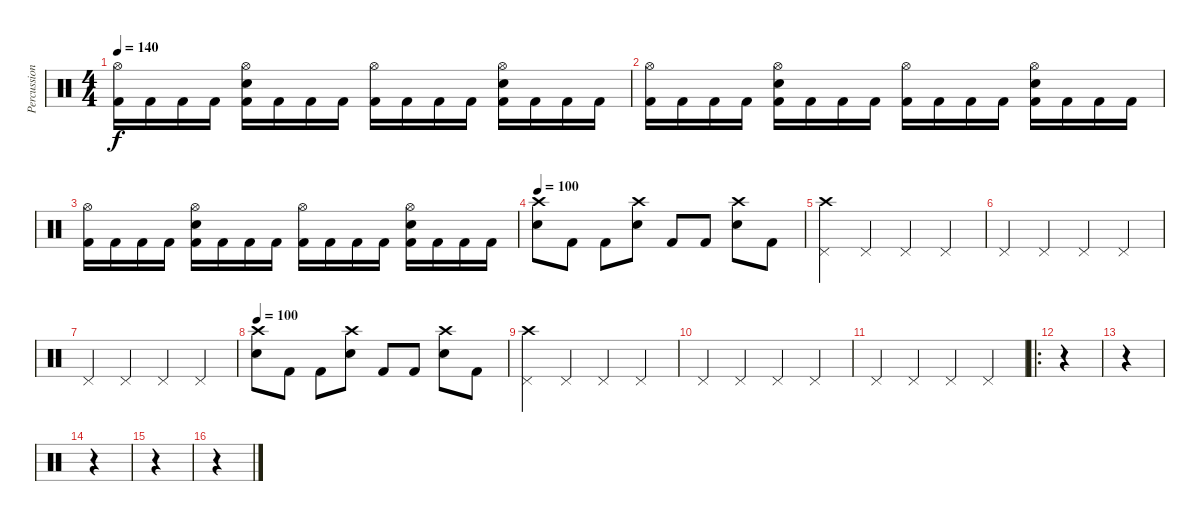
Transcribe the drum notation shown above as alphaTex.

\track ("Percussion" "Percussion") {instrument percussion}
\staff {score}
\articulation defaults
\ts (4 4)
\tempo 140
\clef neutral
\ks c
("Hi-Hat (open)" "Kick (hit) 2").16{dy f} "Kick (hit) 2".16 "Kick (hit) 2".16 "Kick (hit) 2".16 ("Hi-Hat (open)" "Electric Snare (hit)" "Kick (hit) 2").16 "Kick (hit) 2".16 "Kick (hit) 2".16 "Kick (hit) 2".16 ("Hi-Hat (open)" "Kick (hit) 2").16 "Kick (hit) 2".16 "Kick (hit) 2".16 "Kick (hit) 2".16 ("Hi-Hat (open)" "Electric Snare (hit)" "Kick (hit) 2").16 "Kick (hit) 2".16 "Kick (hit) 2".16 "Kick (hit) 2".16 |
("Hi-Hat (open)" "Kick (hit) 2").16 "Kick (hit) 2".16 "Kick (hit) 2".16 "Kick (hit) 2".16 ("Hi-Hat (open)" "Electric Snare (hit)" "Kick (hit) 2").16 "Kick (hit) 2".16 "Kick (hit) 2".16 "Kick (hit) 2".16 ("Hi-Hat (open)" "Kick (hit) 2").16 "Kick (hit) 2".16 "Kick (hit) 2".16 "Kick (hit) 2".16 ("Hi-Hat (open)" "Electric Snare (hit)" "Kick (hit) 2").16 "Kick (hit) 2".16 "Kick (hit) 2".16 "Kick (hit) 2".16 |
("Hi-Hat (open)" "Kick (hit) 2").16 "Kick (hit) 2".16 "Kick (hit) 2".16 "Kick (hit) 2".16 ("Hi-Hat (open)" "Electric Snare (hit)" "Kick (hit) 2").16 "Kick (hit) 2".16 "Kick (hit) 2".16 "Kick (hit) 2".16 ("Hi-Hat (open)" "Kick (hit) 2").16 "Kick (hit) 2".16 "Kick (hit) 2".16 "Kick (hit) 2".16 ("Hi-Hat (open)" "Electric Snare (hit)" "Kick (hit) 2").16 "Kick (hit) 2".16 "Kick (hit) 2".16 "Kick (hit) 2".16 |
\tempo 100
("Crash high (hit)" "Electric Snare (hit)").8 "Kick (hit) 2".8 "Kick (hit) 2".8 ("Crash high (hit)" "Electric Snare (hit)").8 "Kick (hit) 2".8 "Kick (hit) 2".8 ("Crash high (hit)" "Electric Snare (hit)").8 "Kick (hit) 2".8 |
("Crash high (hit)" "Pedal Hi-Hat (hit)").4 "Pedal Hi-Hat (hit)".4 "Pedal Hi-Hat (hit)".4 "Pedal Hi-Hat (hit)".4 |
"Pedal Hi-Hat (hit)".4 "Pedal Hi-Hat (hit)".4 "Pedal Hi-Hat (hit)".4 "Pedal Hi-Hat (hit)".4 |
"Pedal Hi-Hat (hit)".4 "Pedal Hi-Hat (hit)".4 "Pedal Hi-Hat (hit)".4 "Pedal Hi-Hat (hit)".4 |
\tempo 100
("Crash high (hit)" "Electric Snare (hit)").8 "Kick (hit) 2".8 "Kick (hit) 2".8 ("Crash high (hit)" "Electric Snare (hit)").8 "Kick (hit) 2".8 "Kick (hit) 2".8 ("Crash high (hit)" "Electric Snare (hit)").8 "Kick (hit) 2".8 |
("Crash high (hit)" "Pedal Hi-Hat (hit)").4 "Pedal Hi-Hat (hit)".4 "Pedal Hi-Hat (hit)".4 "Pedal Hi-Hat (hit)".4 |
"Pedal Hi-Hat (hit)".4 "Pedal Hi-Hat (hit)".4 "Pedal Hi-Hat (hit)".4 "Pedal Hi-Hat (hit)".4 |
"Pedal Hi-Hat (hit)".4 "Pedal Hi-Hat (hit)".4 "Pedal Hi-Hat (hit)".4 "Pedal Hi-Hat (hit)".4 |
\ro
r.4 |
r.4 |
r.4 |
r.4 |
r.4
